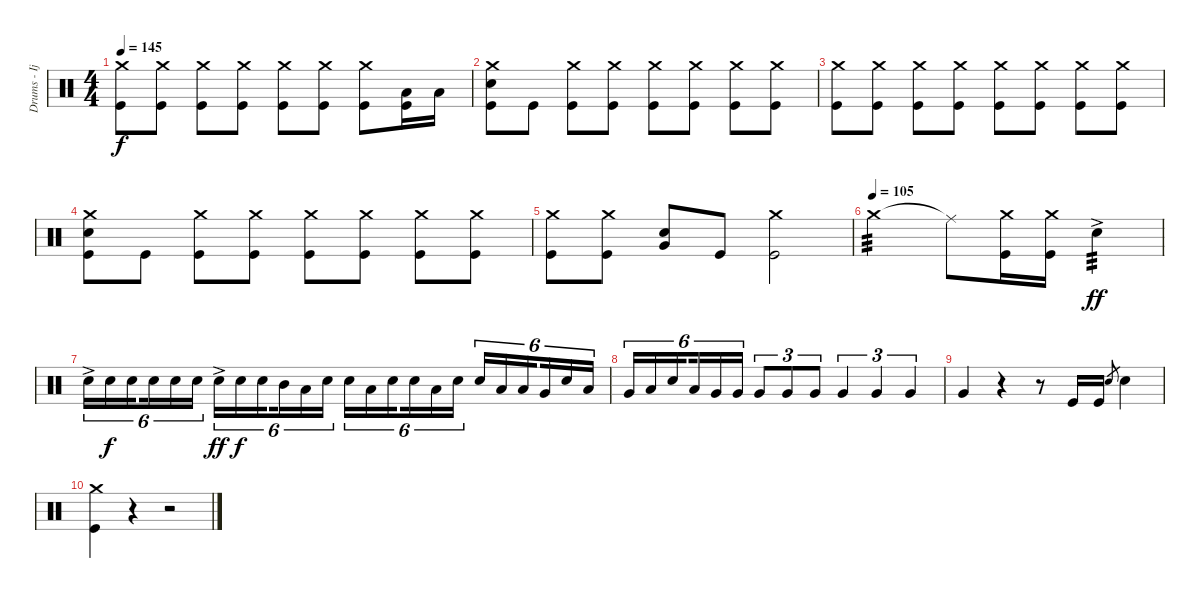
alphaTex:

\track ("Drums - Ijichi" "Drums - Ij") {instrument percussion}
\staff {score}
\articulation defaults
\ts (4 4)
\tempo 145
\clef neutral
\ks c
("Crash medium (hit)" "Kick (hit)").8{dy f} ("Crash medium (hit)" "Kick (hit)").8 ("Crash medium (hit)" "Kick (hit)").8 ("Crash medium (hit)" "Kick (hit)").8 ("Crash medium (hit)" "Kick (hit)").8 ("Crash medium (hit)" "Kick (hit)").8 ("Crash medium (hit)" "Kick (hit)").8 ("Low Tom (hit)" "Kick (hit)").16 "Low Tom (hit)".16 |
("Crash medium (hit)" "Electric Snare (hit)" "Kick (hit)").8 "Kick (hit)".8 ("Crash medium (hit)" "Kick (hit)").8 ("Crash medium (hit)" "Kick (hit)").8 ("Crash medium (hit)" "Kick (hit)").8 ("Crash medium (hit)" "Kick (hit)").8 ("Crash medium (hit)" "Kick (hit)").8 ("Crash medium (hit)" "Kick (hit)").8 |
("Crash medium (hit)" "Kick (hit)").8 ("Crash medium (hit)" "Kick (hit)").8 ("Crash medium (hit)" "Kick (hit)").8 ("Crash medium (hit)" "Kick (hit)").8 ("Crash medium (hit)" "Kick (hit)").8 ("Crash medium (hit)" "Kick (hit)").8 ("Crash medium (hit)" "Kick (hit)").8 ("Crash medium (hit)" "Kick (hit)").8 |
("Crash medium (hit)" "Electric Snare (hit)" "Kick (hit)").8 "Kick (hit)".8 ("Crash medium (hit)" "Kick (hit)").8 ("Crash medium (hit)" "Kick (hit)").8 ("Crash medium (hit)" "Kick (hit)").8 ("Crash medium (hit)" "Kick (hit)").8 ("Crash medium (hit)" "Kick (hit)").8 ("Crash medium (hit)" "Kick (hit)").8 |
("Crash medium (hit)" "Kick (hit)").8 ("Crash medium (hit)" "Kick (hit)").8 ("Electric Snare (hit)" "Very Low Tom (hit)").8 "Kick (hit)".8 ("Crash medium (hit)" "Kick (hit)").2 |
\tempo (105)
"Crash medium (hit)".2{tp 3} "Ride (middle)"{t}.8 ("Crash medium (hit)" "Kick (hit)").16 ("Crash medium (hit)" "Kick (hit)").16 "Electric Snare (hit)"{ac}.4{tp 3 dy ff} |
"Electric Snare (hit)"{ac}.16{tu (6 4)} "Electric Snare (hit)".16{tu (6 4) dy f} "Electric Snare (hit)".16{tu (6 4) beam splitsecondary} "Electric Snare (hit)".16{tu (6 4)} "Electric Snare (hit)".16{tu (6 4)} "Electric Snare (hit)".16{tu (6 4)} "Electric Snare (hit)"{ac}.16{tu (6 4) dy ff} "Electric Snare (hit)".16{tu (6 4) dy f} "Electric Snare (hit)".16{tu (6 4) beam splitsecondary} "Mid Tom (hit)".16{tu (6 4)} "Low Tom (hit)".16{tu (6 4)} "Electric Snare (hit)".16{tu (6 4)} "Electric Snare (hit)".16{tu (6 4)} "Low Tom (hit)".16{tu (6 4)} "Electric Snare (hit)".16{tu (6 4) beam splitsecondary} "Electric Snare (hit)".16{tu (6 4)} "Low Tom (hit)".16{tu (6 4)} "Electric Snare (hit)".16{tu (6 4)} "Electric Snare (hit)".16{tu (6 4)} "Low Tom (hit)".16{tu (6 4)} "Low Tom (hit)".16{tu (6 4) beam splitsecondary} "Very Low Tom (hit)".16{tu (6 4)} "Electric Snare (hit)".16{tu (6 4)} "Low Tom (hit)".16{tu (6 4)} |
"Very Low Tom (hit)".16{tu (6 4)} "Low Tom (hit)".16{tu (6 4)} "Electric Snare (hit)".16{tu (6 4) beam splitsecondary} "Low Tom (hit)".16{tu (6 4)} "Very Low Tom (hit)".16{tu (6 4)} "Very Low Tom (hit)".16{tu (6 4)} "Very Low Tom (hit)".8{tu (3 2)} "Very Low Tom (hit)".8{tu (3 2)} "Very Low Tom (hit)".8{tu (3 2)} "Very Low Tom (hit)".4{tu (3 2)} "Very Low Tom (hit)".4{tu (3 2)} "Very Low Tom (hit)".4{tu (3 2)} |
"Very Low Tom (hit)".4 r.4 r.8 "Kick (hit)".16 "Kick (hit)".16 "Electric Snare (hit)".8{gr} "Electric Snare (hit)".4 |
("Crash medium (hit)" "Kick (hit)").4 r.4 r.2
